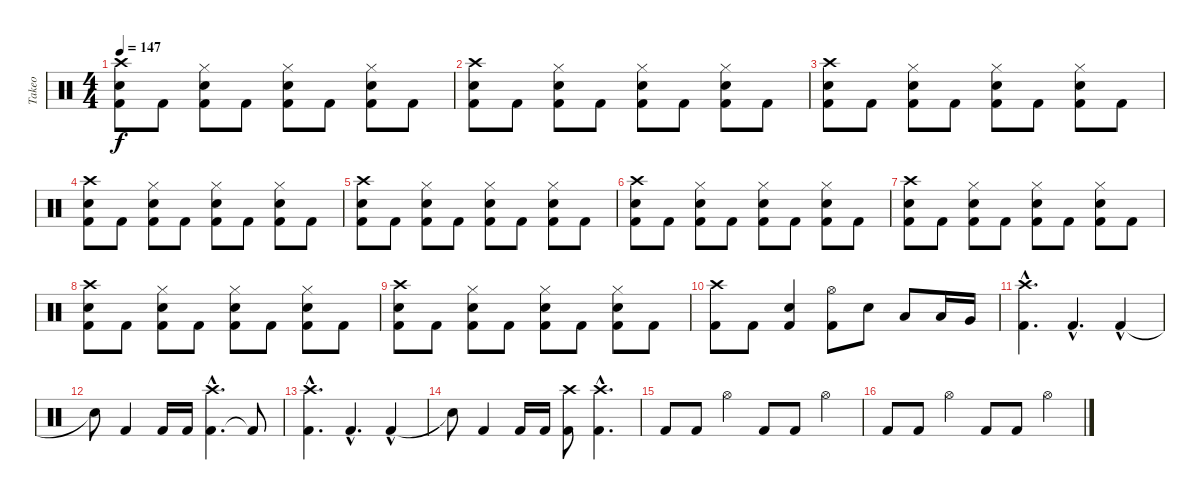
\track ("Takeo" "Takeo") {instrument percussion}
\staff {score}
\articulation defaults
\ts (4 4)
\tempo 147
\clef neutral
\ks c
("Kick (hit) 2" "Snare (hit) 2" "Crash high (hit)").8{dy f} "Kick (hit) 2".8 ("Kick (hit) 2" "Snare (hit) 2" "Hi-Hat (closed)").8 "Kick (hit) 2".8 ("Kick (hit) 2" "Snare (hit) 2" "Hi-Hat (closed)").8 "Kick (hit) 2".8 ("Kick (hit) 2" "Snare (hit) 2" "Hi-Hat (closed)").8 "Kick (hit) 2".8 |
("Kick (hit) 2" "Snare (hit) 2" "Crash high (hit)").8 "Kick (hit) 2".8 ("Kick (hit) 2" "Snare (hit) 2" "Hi-Hat (closed)").8 "Kick (hit) 2".8 ("Kick (hit) 2" "Snare (hit) 2" "Hi-Hat (closed)").8 "Kick (hit) 2".8 ("Kick (hit) 2" "Snare (hit) 2" "Hi-Hat (closed)").8 "Kick (hit) 2".8 |
("Kick (hit) 2" "Snare (hit) 2" "Crash high (hit)").8 "Kick (hit) 2".8 ("Kick (hit) 2" "Snare (hit) 2" "Hi-Hat (closed)").8 "Kick (hit) 2".8 ("Kick (hit) 2" "Snare (hit) 2" "Hi-Hat (closed)").8 "Kick (hit) 2".8 ("Kick (hit) 2" "Snare (hit) 2" "Hi-Hat (closed)").8 "Kick (hit) 2".8 |
("Kick (hit) 2" "Snare (hit) 2" "Crash high (hit)").8 "Kick (hit) 2".8 ("Kick (hit) 2" "Snare (hit) 2" "Hi-Hat (closed)").8 "Kick (hit) 2".8 ("Kick (hit) 2" "Snare (hit) 2" "Hi-Hat (closed)").8 "Kick (hit) 2".8 ("Kick (hit) 2" "Snare (hit) 2" "Hi-Hat (closed)").8 "Kick (hit) 2".8 |
("Kick (hit) 2" "Snare (hit) 2" "Crash high (hit)").8 "Kick (hit) 2".8 ("Kick (hit) 2" "Snare (hit) 2" "Hi-Hat (closed)").8 "Kick (hit) 2".8 ("Kick (hit) 2" "Snare (hit) 2" "Hi-Hat (closed)").8 "Kick (hit) 2".8 ("Kick (hit) 2" "Snare (hit) 2" "Hi-Hat (closed)").8 "Kick (hit) 2".8 |
("Kick (hit) 2" "Snare (hit) 2" "Crash high (hit)").8 "Kick (hit) 2".8 ("Kick (hit) 2" "Snare (hit) 2" "Hi-Hat (closed)").8 "Kick (hit) 2".8 ("Kick (hit) 2" "Snare (hit) 2" "Hi-Hat (closed)").8 "Kick (hit) 2".8 ("Kick (hit) 2" "Snare (hit) 2" "Hi-Hat (closed)").8 "Kick (hit) 2".8 |
("Kick (hit) 2" "Snare (hit) 2" "Crash high (hit)").8 "Kick (hit) 2".8 ("Kick (hit) 2" "Snare (hit) 2" "Hi-Hat (closed)").8 "Kick (hit) 2".8 ("Kick (hit) 2" "Snare (hit) 2" "Hi-Hat (closed)").8 "Kick (hit) 2".8 ("Kick (hit) 2" "Snare (hit) 2" "Hi-Hat (closed)").8 "Kick (hit) 2".8 |
("Kick (hit) 2" "Snare (hit) 2" "Crash high (hit)").8 "Kick (hit) 2".8 ("Kick (hit) 2" "Snare (hit) 2" "Hi-Hat (closed)").8 "Kick (hit) 2".8 ("Kick (hit) 2" "Snare (hit) 2" "Hi-Hat (closed)").8 "Kick (hit) 2".8 ("Kick (hit) 2" "Snare (hit) 2" "Hi-Hat (closed)").8 "Kick (hit) 2".8 |
("Kick (hit) 2" "Snare (hit) 2" "Crash high (hit)").8 "Kick (hit) 2".8 ("Kick (hit) 2" "Snare (hit) 2" "Hi-Hat (closed)").8 "Kick (hit) 2".8 ("Kick (hit) 2" "Snare (hit) 2" "Hi-Hat (closed)").8 "Kick (hit) 2".8 ("Kick (hit) 2" "Snare (hit) 2" "Hi-Hat (closed)").8 "Kick (hit) 2".8 |
("Kick (hit) 2" "Crash high (hit)").8 "Kick (hit) 2".8 ("Kick (hit) 2" "Snare (hit) 2").4 ("Kick (hit) 2" "Hi-Hat (open)").8 "Snare (hit) 2".8 "Low Tom (hit)".8 "Low Tom (hit)".16 "Very Low Tom (hit)".16 |
("Kick (hit) 2"{hac} "Crash high (hit)"{hac}).4{d} "Kick (hit) 2"{hac}.4{d} "Kick (hit) 2"{hac}.4 |
"Snare (hit)"{t}.8 "Kick (hit) 2".4 "Kick (hit) 2".16 "Kick (hit) 2".16 ("Kick (hit) 2"{hac} "Crash high (hit)"{hac}).4{d} "Kick (hit) 2"{t}.8 |
("Kick (hit) 2"{hac} "Crash high (hit)"{hac}).4{d} "Kick (hit) 2"{hac}.4{d} "Kick (hit) 2"{hac}.4 |
"Snare (hit)"{t}.8 "Kick (hit) 2".4 "Kick (hit) 2".16 "Kick (hit) 2".16 ("Kick (hit) 2" "Crash high (hit)").8 ("Kick (hit) 2"{hac} "Crash high (hit)"{hac}).4{d} |
"Kick (hit) 2".8 "Kick (hit) 2".8 "Hi-Hat (open)".4 "Kick (hit) 2".8 "Kick (hit) 2".8 "Hi-Hat (open)".4 |
"Kick (hit) 2".8 "Kick (hit) 2".8 "Hi-Hat (open)".4 "Kick (hit) 2".8 "Kick (hit) 2".8 "Hi-Hat (open)".4
